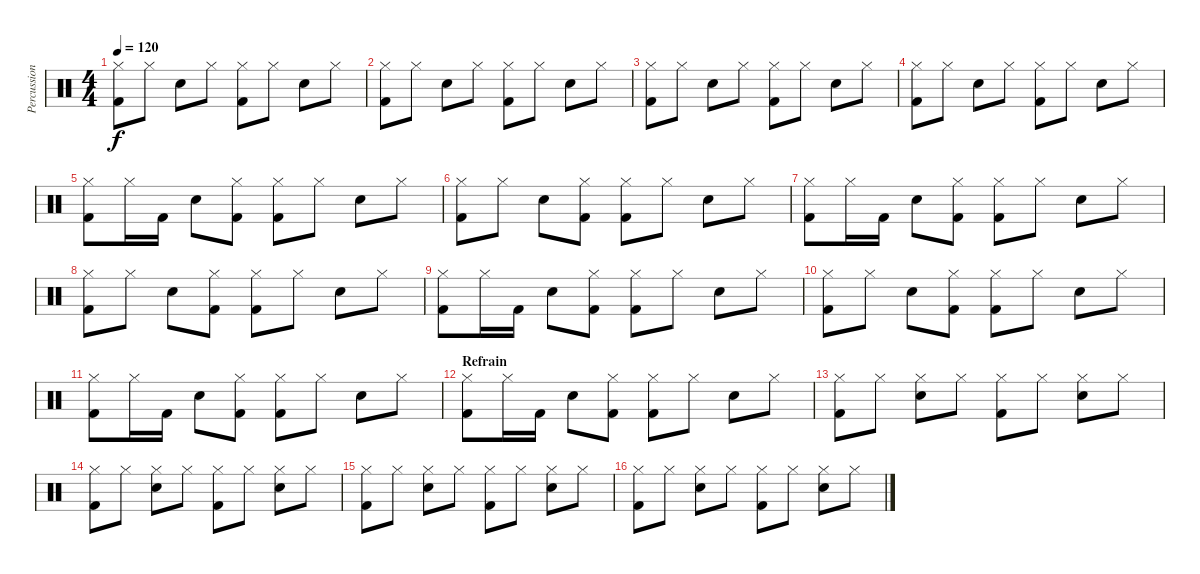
\track ("Percussion (Bela)" "Percussion") {instrument percussion}
\staff {score}
\articulation defaults
\ts (4 4)
\tempo 120
\clef neutral
\ks c
("Hi-Hat (closed)" "Kick (hit) 2").8{dy f} "Hi-Hat (closed)".8 "Electric Snare (hit)".8 "Hi-Hat (closed)".8 ("Hi-Hat (closed)" "Kick (hit) 2").8 "Hi-Hat (closed)".8 "Electric Snare (hit)".8 "Hi-Hat (closed)".8 |
("Hi-Hat (closed)" "Kick (hit) 2").8 "Hi-Hat (closed)".8 "Electric Snare (hit)".8 "Hi-Hat (closed)".8 ("Hi-Hat (closed)" "Kick (hit) 2").8 "Hi-Hat (closed)".8 "Electric Snare (hit)".8 "Hi-Hat (closed)".8 |
("Hi-Hat (closed)" "Kick (hit) 2").8 "Hi-Hat (closed)".8 "Electric Snare (hit)".8 "Hi-Hat (closed)".8 ("Hi-Hat (closed)" "Kick (hit) 2").8 "Hi-Hat (closed)".8 "Electric Snare (hit)".8 "Hi-Hat (closed)".8 |
("Hi-Hat (closed)" "Kick (hit) 2").8 "Hi-Hat (closed)".8 "Electric Snare (hit)".8 "Hi-Hat (closed)".8 ("Hi-Hat (closed)" "Kick (hit) 2").8 "Hi-Hat (closed)".8 "Electric Snare (hit)".8 "Hi-Hat (closed)".8 |
("Hi-Hat (closed)" "Kick (hit) 2").8 "Hi-Hat (closed)".16 "Kick (hit) 2".16 "Electric Snare (hit)".8 ("Hi-Hat (closed)" "Kick (hit) 2").8 ("Hi-Hat (closed)" "Kick (hit) 2").8 "Hi-Hat (closed)".8 "Electric Snare (hit)".8 "Hi-Hat (closed)".8 |
("Hi-Hat (closed)" "Kick (hit) 2").8 "Hi-Hat (closed)".8 "Electric Snare (hit)".8 ("Hi-Hat (closed)" "Kick (hit) 2").8 ("Hi-Hat (closed)" "Kick (hit) 2").8 "Hi-Hat (closed)".8 "Electric Snare (hit)".8 "Hi-Hat (closed)".8 |
("Hi-Hat (closed)" "Kick (hit) 2").8 "Hi-Hat (closed)".16 "Kick (hit) 2".16 "Electric Snare (hit)".8 ("Hi-Hat (closed)" "Kick (hit) 2").8 ("Hi-Hat (closed)" "Kick (hit) 2").8 "Hi-Hat (closed)".8 "Electric Snare (hit)".8 "Hi-Hat (closed)".8 |
("Hi-Hat (closed)" "Kick (hit) 2").8 "Hi-Hat (closed)".8 "Electric Snare (hit)".8 ("Hi-Hat (closed)" "Kick (hit) 2").8 ("Hi-Hat (closed)" "Kick (hit) 2").8 "Hi-Hat (closed)".8 "Electric Snare (hit)".8 "Hi-Hat (closed)".8 |
("Hi-Hat (closed)" "Kick (hit) 2").8 "Hi-Hat (closed)".16 "Kick (hit) 2".16 "Electric Snare (hit)".8 ("Hi-Hat (closed)" "Kick (hit) 2").8 ("Hi-Hat (closed)" "Kick (hit) 2").8 "Hi-Hat (closed)".8 "Electric Snare (hit)".8 "Hi-Hat (closed)".8 |
("Hi-Hat (closed)" "Kick (hit) 2").8 "Hi-Hat (closed)".8 "Electric Snare (hit)".8 ("Hi-Hat (closed)" "Kick (hit) 2").8 ("Hi-Hat (closed)" "Kick (hit) 2").8 "Hi-Hat (closed)".8 "Electric Snare (hit)".8 "Hi-Hat (closed)".8 |
("Hi-Hat (closed)" "Kick (hit) 2").8 "Hi-Hat (closed)".16 "Kick (hit) 2".16 "Electric Snare (hit)".8 ("Hi-Hat (closed)" "Kick (hit) 2").8 ("Hi-Hat (closed)" "Kick (hit) 2").8 "Hi-Hat (closed)".8 "Electric Snare (hit)".8 "Hi-Hat (closed)".8 |
\section ("" "Refrain")
("Hi-Hat (closed)" "Kick (hit) 2").8 "Hi-Hat (closed)".16 "Kick (hit) 2".16 "Electric Snare (hit)".8 ("Hi-Hat (closed)" "Kick (hit) 2").8 ("Hi-Hat (closed)" "Kick (hit) 2").8 "Hi-Hat (closed)".8 "Electric Snare (hit)".8 "Hi-Hat (closed)".8 |
("Hi-Hat (closed)" "Kick (hit) 2").8 "Hi-Hat (closed)".8 ("Hi-Hat (closed)" "Electric Snare (hit)").8 "Hi-Hat (closed)".8 ("Hi-Hat (closed)" "Kick (hit) 2").8 "Hi-Hat (closed)".8 ("Hi-Hat (closed)" "Electric Snare (hit)").8 "Hi-Hat (closed)".8 |
("Hi-Hat (closed)" "Kick (hit) 2").8 "Hi-Hat (closed)".8 ("Hi-Hat (closed)" "Electric Snare (hit)").8 "Hi-Hat (closed)".8 ("Hi-Hat (closed)" "Kick (hit) 2").8 "Hi-Hat (closed)".8 ("Hi-Hat (closed)" "Electric Snare (hit)").8 "Hi-Hat (closed)".8 |
("Hi-Hat (closed)" "Kick (hit) 2").8 "Hi-Hat (closed)".8 ("Hi-Hat (closed)" "Electric Snare (hit)").8 "Hi-Hat (closed)".8 ("Hi-Hat (closed)" "Kick (hit) 2").8 "Hi-Hat (closed)".8 ("Hi-Hat (closed)" "Electric Snare (hit)").8 "Hi-Hat (closed)".8 |
("Hi-Hat (closed)" "Kick (hit) 2").8 "Hi-Hat (closed)".8 ("Hi-Hat (closed)" "Electric Snare (hit)").8 "Hi-Hat (closed)".8 ("Hi-Hat (closed)" "Kick (hit) 2").8 "Hi-Hat (closed)".8 ("Hi-Hat (closed)" "Electric Snare (hit)").8 "Hi-Hat (closed)".8
